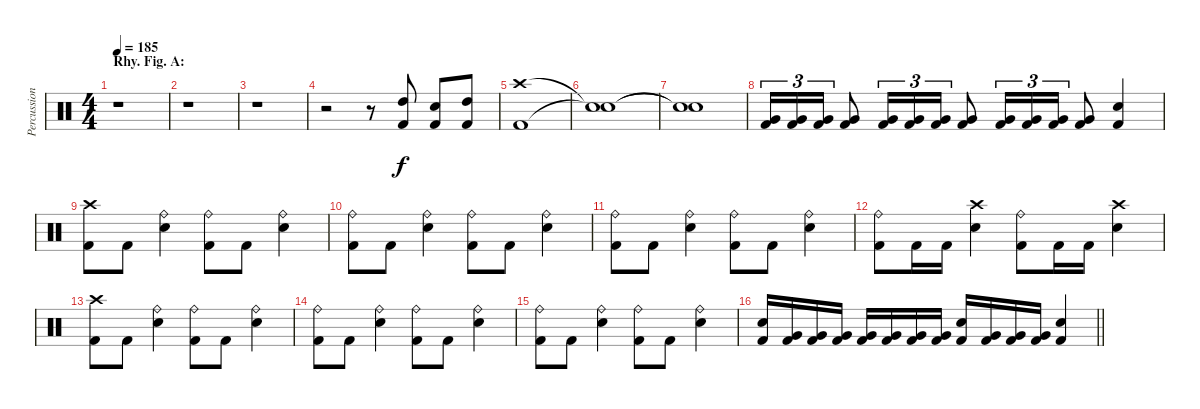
\track ("Percussion" "Percussion") {instrument percussion}
\staff {score}
\articulation defaults
\ts (4 4)
\section ("" "Rhy. Fig. A:")
\tempo 185
\clef neutral
\ks c
r.1{dy f} |
r.1 |
r.1 |
r.2 r.8 ("High Tom (hit)" "Kick (hit) 2").8 ("Snare (hit) 2" "Kick (hit) 2").8 ("High Tom (hit)" "Kick (hit) 2").8 |
("Crash high (hit)" "Kick (hit) 2").1 |
("Snare (hit)"{t} "Snare (hit)"{t}).1 |
("Snare (hit)"{t} "Snare (hit)"{t}).1 |
("Very Low Tom (hit)" "Kick (hit) 2").16{tu (3 2)} ("Very Low Tom (hit)" "Kick (hit) 2").16{tu (3 2)} ("Very Low Tom (hit)" "Kick (hit) 2").16{tu (3 2)} ("Very Low Tom (hit)" "Kick (hit) 2").8 ("Very Low Tom (hit)" "Kick (hit) 2").16{tu (3 2)} ("Very Low Tom (hit)" "Kick (hit) 2").16{tu (3 2)} ("Very Low Tom (hit)" "Kick (hit) 2").16{tu (3 2)} ("Very Low Tom (hit)" "Kick (hit) 2").8 ("Very Low Tom (hit)" "Kick (hit) 2").16{tu (3 2)} ("Very Low Tom (hit)" "Kick (hit) 2").16{tu (3 2)} ("Very Low Tom (hit)" "Kick (hit) 2").16{tu (3 2)} ("Very Low Tom (hit)" "Kick (hit) 2").8 ("Snare (hit) 2" "Kick (hit) 2").4 |
("Crash high (hit)" "Kick (hit) 2").8 "Kick (hit) 2".8 ("Ride (bell)" "Snare (hit) 2").4 ("Ride (bell)" "Kick (hit) 2").8 "Kick (hit) 2".8 ("Ride (bell)" "Snare (hit) 2").4 |
("Ride (bell)" "Kick (hit) 2").8 "Kick (hit) 2".8 ("Ride (bell)" "Snare (hit) 2").4 ("Ride (bell)" "Kick (hit) 2").8 "Kick (hit) 2".8 ("Ride (bell)" "Snare (hit) 2").4 |
("Ride (bell)" "Kick (hit) 2").8 "Kick (hit) 2".8 ("Ride (bell)" "Snare (hit) 2").4 ("Ride (bell)" "Kick (hit) 2").8 "Kick (hit) 2".8 ("Ride (bell)" "Snare (hit) 2").4 |
("Ride (bell)" "Kick (hit) 2").8 "Kick (hit) 2".16 "Kick (hit) 2".16 ("Crash high (hit)" "Snare (hit) 2").4 ("Ride (bell)" "Kick (hit) 2").8 "Kick (hit) 2".16 "Kick (hit) 2".16 ("Crash high (hit)" "Snare (hit) 2").4 |
("Crash high (hit)" "Kick (hit) 2").8 "Kick (hit) 2".8 ("Ride (bell)" "Snare (hit) 2").4 ("Ride (bell)" "Kick (hit) 2").8 "Kick (hit) 2".8 ("Ride (bell)" "Snare (hit) 2").4 |
("Ride (bell)" "Kick (hit) 2").8 "Kick (hit) 2".8 ("Ride (bell)" "Snare (hit) 2").4 ("Ride (bell)" "Kick (hit) 2").8 "Kick (hit) 2".8 ("Ride (bell)" "Snare (hit) 2").4 |
("Ride (bell)" "Kick (hit) 2").8 "Kick (hit) 2".8 ("Ride (bell)" "Snare (hit) 2").4 ("Ride (bell)" "Kick (hit) 2").8 "Kick (hit) 2".8 ("Ride (bell)" "Snare (hit) 2").4 |
\barLineRight lightlight
("Snare (hit) 2" "Kick (hit) 2").16 ("Very Low Tom (hit)" "Kick (hit) 2").16 ("Very Low Tom (hit)" "Kick (hit) 2").16 ("Very Low Tom (hit)" "Kick (hit) 2").16 ("Very Low Tom (hit)" "Kick (hit) 2").16 ("Very Low Tom (hit)" "Kick (hit) 2").16 ("Very Low Tom (hit)" "Kick (hit) 2").16 ("Very Low Tom (hit)" "Kick (hit) 2").16 ("Snare (hit) 2" "Kick (hit) 2").16 ("Very Low Tom (hit)" "Kick (hit) 2").16 ("Very Low Tom (hit)" "Kick (hit) 2").16 ("Very Low Tom (hit)" "Kick (hit) 2").16 ("Snare (hit) 2" "Kick (hit) 2").4
